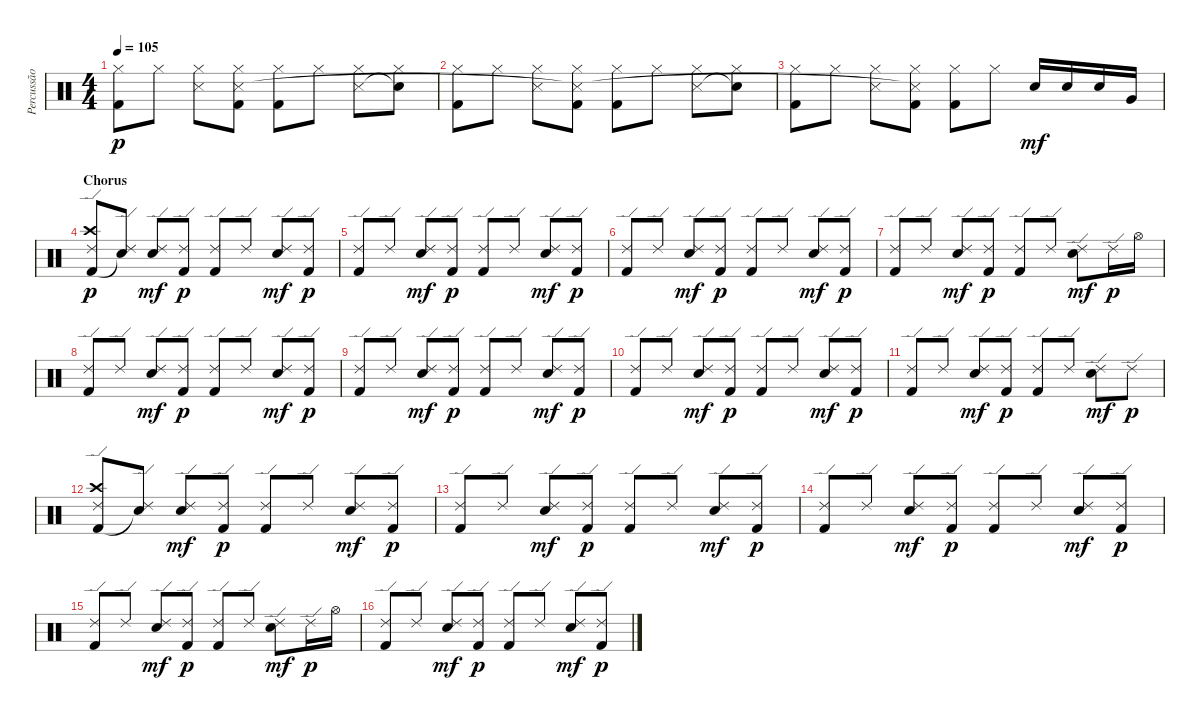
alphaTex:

\track ("Percussão" "Percussão") {instrument percussion}
\staff {score}
\articulation defaults
\ts (4 4)
\tempo 105
\clef neutral
\ks c
("Kick (hit) 2" "Hi-Hat (closed)").8{dy p} "Hi-Hat (closed)".8 ("Hi-Hat (closed)" "Snare (side stick) 3").8 ("Kick (hit) 2" "Hi-Hat (closed)" "Snare (side stick) 3"{t}).8 ("Kick (hit) 2" "Hi-Hat (closed)").8 "Hi-Hat (closed)".8 ("Hi-Hat (closed)" "Snare (side stick) 3").8 ("Hi-Hat (closed)" "Snare (hit)"{t}).8 |
("Kick (hit) 2" "Hi-Hat (closed)").8 "Hi-Hat (closed)".8 ("Hi-Hat (closed)" "Snare (side stick) 3").8 ("Kick (hit) 2" "Hi-Hat (closed)" "Snare (side stick) 3"{t}).8 ("Kick (hit) 2" "Hi-Hat (closed)").8 "Hi-Hat (closed)".8 ("Hi-Hat (closed)" "Snare (side stick) 3").8 ("Hi-Hat (closed)" "Snare (hit)"{t}).8 |
("Kick (hit) 2" "Hi-Hat (closed)").8 "Hi-Hat (closed)".8 ("Hi-Hat (closed)" "Snare (side stick) 3").8 ("Kick (hit) 2" "Hi-Hat (closed)" "Snare (side stick) 3"{t}).8 ("Kick (hit) 2" "Hi-Hat (closed)").8 "Hi-Hat (closed)".8 "Snare (hit) 2".16{dy mf} "Snare (hit) 2".16 "Electric Snare (hit)".16 "Very Low Tom (hit)".16 |
\section ("" "Chorus")
("Kick (hit) 2" "Crash high (hit)" "Ride (edge) 2").8{dy p} ("Snare (hit)"{t} "Ride (edge) 2").8 ("Ride (edge) 2" "Electric Snare (hit)").8{dy mf} ("Kick (hit) 2" "Ride (edge) 2").8{dy p} ("Kick (hit) 2" "Ride (edge) 2").8 "Ride (edge) 2".8 ("Ride (edge) 2" "Electric Snare (hit)").8{dy mf} ("Kick (hit) 2" "Ride (edge) 2").8{dy p} |
("Kick (hit) 2" "Ride (edge) 2").8 "Ride (edge) 2".8 ("Ride (edge) 2" "Electric Snare (hit)").8{dy mf} ("Kick (hit) 2" "Ride (edge) 2").8{dy p} ("Kick (hit) 2" "Ride (edge) 2").8 "Ride (edge) 2".8 ("Ride (edge) 2" "Electric Snare (hit)").8{dy mf} ("Kick (hit) 2" "Ride (edge) 2").8{dy p} |
("Kick (hit) 2" "Ride (edge) 2").8 "Ride (edge) 2".8 ("Ride (edge) 2" "Electric Snare (hit)").8{dy mf} ("Kick (hit) 2" "Ride (edge) 2").8{dy p} ("Kick (hit) 2" "Ride (edge) 2").8 "Ride (edge) 2".8 ("Ride (edge) 2" "Electric Snare (hit)").8{dy mf} ("Kick (hit) 2" "Ride (edge) 2").8{dy p} |
("Kick (hit) 2" "Ride (edge) 2").8 "Ride (edge) 2".8 ("Ride (edge) 2" "Electric Snare (hit)").8{dy mf} ("Kick (hit) 2" "Ride (edge) 2").8{dy p} ("Kick (hit) 2" "Ride (edge) 2").8 "Ride (edge) 2".8 ("Ride (edge) 2" "Electric Snare (hit)").8{dy mf} "Ride (edge) 2".16{dy p} "Hi-Hat (open)".16 |
("Kick (hit) 2" "Ride (edge) 2").8 "Ride (edge) 2".8 ("Ride (edge) 2" "Electric Snare (hit)").8{dy mf} ("Kick (hit) 2" "Ride (edge) 2").8{dy p} ("Kick (hit) 2" "Ride (edge) 2").8 "Ride (edge) 2".8 ("Ride (edge) 2" "Electric Snare (hit)").8{dy mf} ("Kick (hit) 2" "Ride (edge) 2").8{dy p} |
("Kick (hit) 2" "Ride (edge) 2").8 "Ride (edge) 2".8 ("Ride (edge) 2" "Electric Snare (hit)").8{dy mf} ("Kick (hit) 2" "Ride (edge) 2").8{dy p} ("Kick (hit) 2" "Ride (edge) 2").8 "Ride (edge) 2".8 ("Ride (edge) 2" "Electric Snare (hit)").8{dy mf} ("Kick (hit) 2" "Ride (edge) 2").8{dy p} |
("Kick (hit) 2" "Ride (edge) 2").8 "Ride (edge) 2".8 ("Ride (edge) 2" "Electric Snare (hit)").8{dy mf} ("Kick (hit) 2" "Ride (edge) 2").8{dy p} ("Kick (hit) 2" "Ride (edge) 2").8 "Ride (edge) 2".8 ("Ride (edge) 2" "Electric Snare (hit)").8{dy mf} ("Kick (hit) 2" "Ride (edge) 2").8{dy p} |
("Kick (hit) 2" "Ride (edge) 2").8 "Ride (edge) 2".8 ("Ride (edge) 2" "Electric Snare (hit)").8{dy mf} ("Kick (hit) 2" "Ride (edge) 2").8{dy p} ("Kick (hit) 2" "Ride (edge) 2").8 "Ride (edge) 2".8 ("Ride (edge) 2" "Electric Snare (hit)").8{dy mf} "Ride (edge) 2".8{dy p} |
("Kick (hit) 2" "Crash high (hit)" "Ride (edge) 2").8 ("Snare (hit)"{t} "Ride (edge) 2").8 ("Ride (edge) 2" "Electric Snare (hit)").8{dy mf} ("Kick (hit) 2" "Ride (edge) 2").8{dy p} ("Kick (hit) 2" "Ride (edge) 2").8 "Ride (edge) 2".8 ("Ride (edge) 2" "Electric Snare (hit)").8{dy mf} ("Kick (hit) 2" "Ride (edge) 2").8{dy p} |
("Kick (hit) 2" "Ride (edge) 2").8 "Ride (edge) 2".8 ("Ride (edge) 2" "Electric Snare (hit)").8{dy mf} ("Kick (hit) 2" "Ride (edge) 2").8{dy p} ("Kick (hit) 2" "Ride (edge) 2").8 "Ride (edge) 2".8 ("Ride (edge) 2" "Electric Snare (hit)").8{dy mf} ("Kick (hit) 2" "Ride (edge) 2").8{dy p} |
("Kick (hit) 2" "Ride (edge) 2").8 "Ride (edge) 2".8 ("Ride (edge) 2" "Electric Snare (hit)").8{dy mf} ("Kick (hit) 2" "Ride (edge) 2").8{dy p} ("Kick (hit) 2" "Ride (edge) 2").8 "Ride (edge) 2".8 ("Ride (edge) 2" "Electric Snare (hit)").8{dy mf} ("Kick (hit) 2" "Ride (edge) 2").8{dy p} |
("Kick (hit) 2" "Ride (edge) 2").8 "Ride (edge) 2".8 ("Ride (edge) 2" "Electric Snare (hit)").8{dy mf} ("Kick (hit) 2" "Ride (edge) 2").8{dy p} ("Kick (hit) 2" "Ride (edge) 2").8 "Ride (edge) 2".8 ("Ride (edge) 2" "Electric Snare (hit)").8{dy mf} "Ride (edge) 2".16{dy p} "Hi-Hat (open)".16 |
("Kick (hit) 2" "Ride (edge) 2").8 "Ride (edge) 2".8 ("Ride (edge) 2" "Electric Snare (hit)").8{dy mf} ("Kick (hit) 2" "Ride (edge) 2").8{dy p} ("Kick (hit) 2" "Ride (edge) 2").8 "Ride (edge) 2".8 ("Ride (edge) 2" "Electric Snare (hit)").8{dy mf} ("Kick (hit) 2" "Ride (edge) 2").8{dy p}
